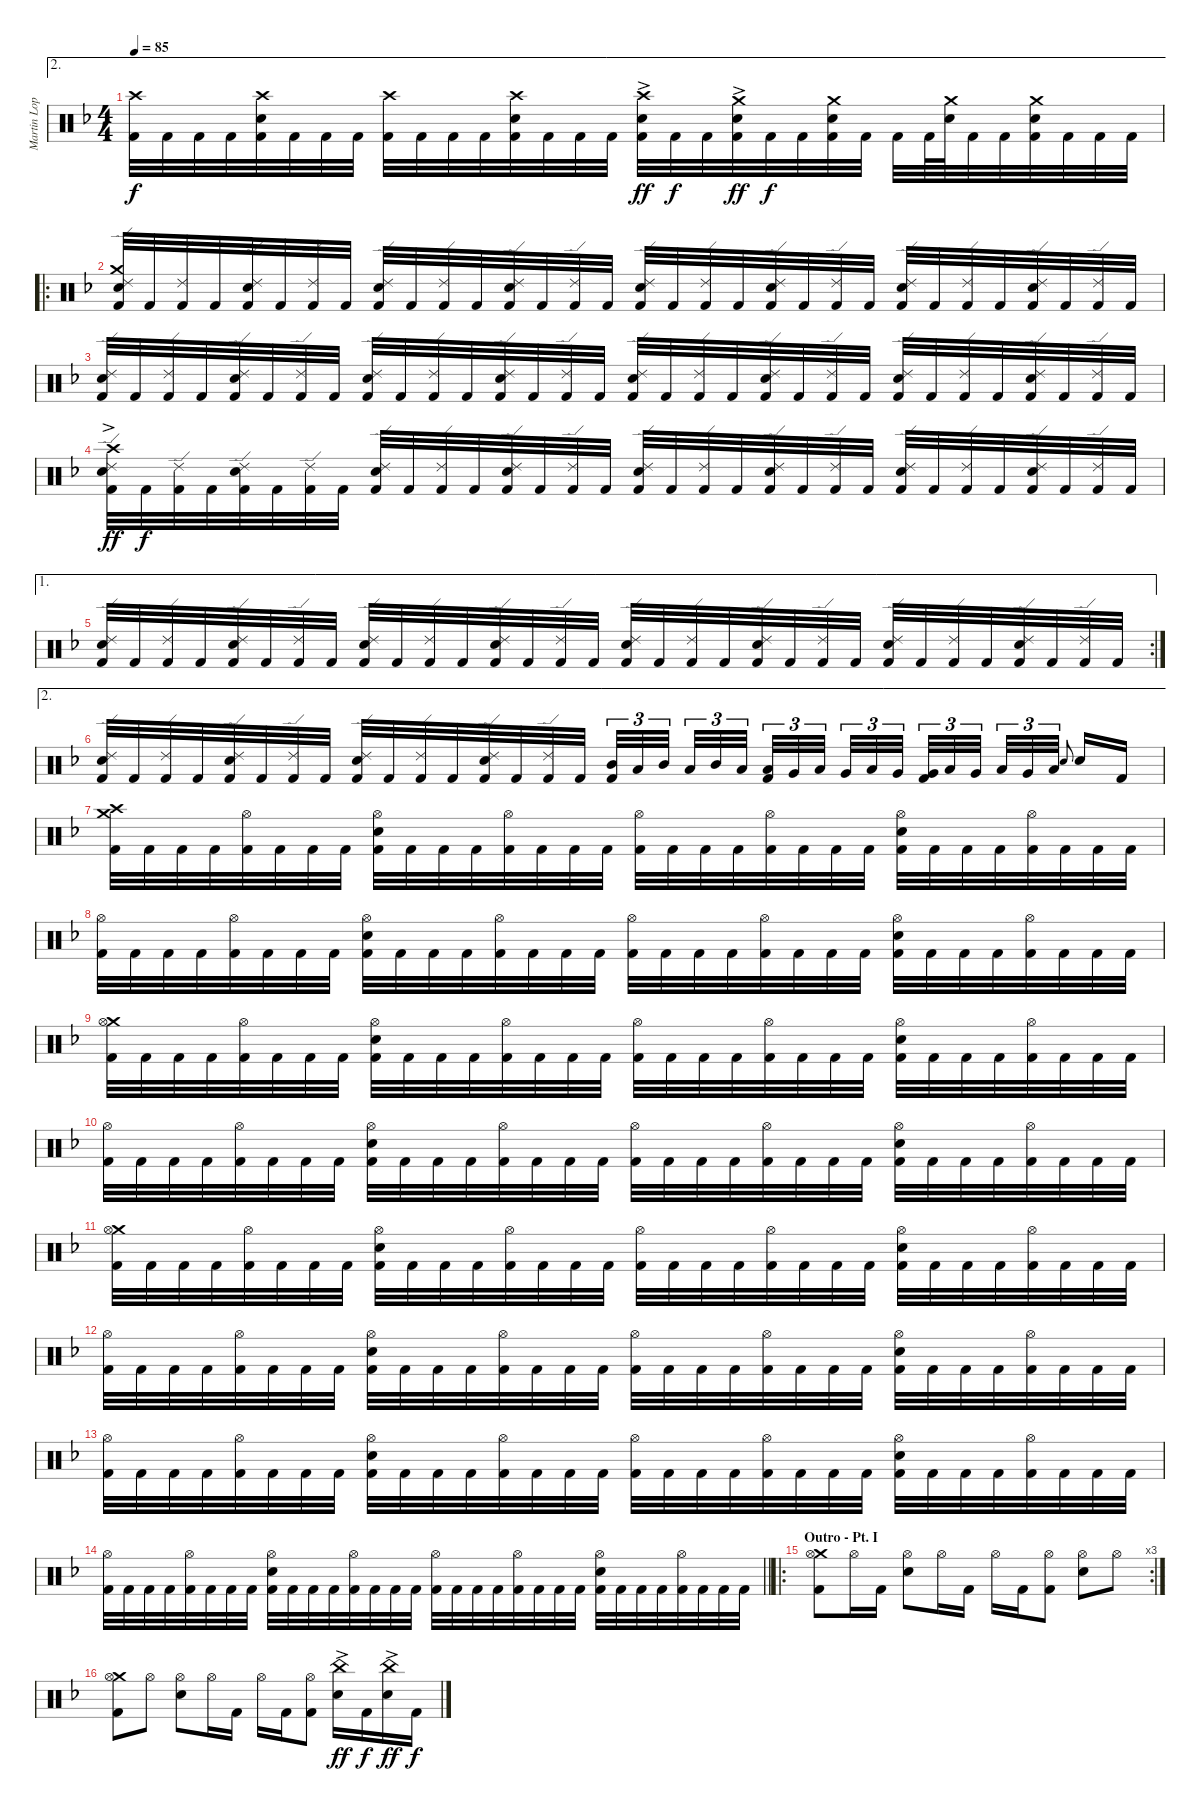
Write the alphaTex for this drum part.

\track ("Martin Lopez - Drums" "Martin Lop") {instrument percussion}
\staff {score}
\articulation defaults
\ae 2
\ts (4 4)
\tempo 85
\clef neutral
\ks f
("Crash high (hit)" "Kick (hit) 2").32{dy f} "Kick (hit) 2".32 "Kick (hit) 2".32 "Kick (hit) 2".32 ("Crash high (hit)" "Electric Snare (hit)" "Kick (hit) 2").32 "Kick (hit) 2".32 "Kick (hit) 2".32 "Kick (hit) 2".32 ("Crash high (hit)" "Kick (hit) 2").32 "Kick (hit) 2".32 "Kick (hit) 2".32 "Kick (hit) 2".32 ("Crash high (hit)" "Electric Snare (hit)" "Kick (hit) 2").32 "Kick (hit) 2".32 "Kick (hit) 2".32 "Kick (hit) 2".32 ("Crash high (hit)"{ac} "Electric Snare (hit)" "Kick (hit) 2").32{dy ff} "Kick (hit) 2".32{dy f} "Kick (hit) 2".32 ("Crash medium (hit)"{ac} "Electric Snare (hit)" "Kick (hit) 2").32{dy ff} "Kick (hit) 2".32{dy f} "Kick (hit) 2".32 ("Crash medium (hit)" "Electric Snare (hit)" "Kick (hit) 2").32 "Kick (hit) 2".32 "Kick (hit) 2".32 "Kick (hit) 2".64 ("Crash medium (hit)" "Electric Snare (hit)").64 "Kick (hit) 2".32 "Kick (hit) 2".32 ("Crash medium (hit)" "Electric Snare (hit)" "Kick (hit) 2").32 "Kick (hit) 2".32 "Kick (hit) 2".32 "Kick (hit) 2".32 |
\ro
("Ride (edge) 2" "Crash medium (hit)" "Electric Snare (hit)" "Kick (hit) 2").32 "Kick (hit) 2".32 ("Ride (edge) 2" "Kick (hit) 2").32 "Kick (hit) 2".32 ("Ride (edge) 2" "Electric Snare (hit)" "Kick (hit) 2").32 "Kick (hit) 2".32 ("Ride (edge) 2" "Kick (hit) 2").32 "Kick (hit) 2".32 ("Ride (edge) 2" "Electric Snare (hit)" "Kick (hit) 2").32 "Kick (hit) 2".32 ("Ride (edge) 2" "Kick (hit) 2").32 "Kick (hit) 2".32 ("Ride (edge) 2" "Electric Snare (hit)" "Kick (hit) 2").32 "Kick (hit) 2".32 ("Ride (edge) 2" "Kick (hit) 2").32 "Kick (hit) 2".32 ("Ride (edge) 2" "Electric Snare (hit)" "Kick (hit) 2").32 "Kick (hit) 2".32 ("Ride (edge) 2" "Kick (hit) 2").32 "Kick (hit) 2".32 ("Ride (edge) 2" "Electric Snare (hit)" "Kick (hit) 2").32 "Kick (hit) 2".32 ("Ride (edge) 2" "Kick (hit) 2").32 "Kick (hit) 2".32 ("Ride (edge) 2" "Electric Snare (hit)" "Kick (hit) 2").32 "Kick (hit) 2".32 ("Ride (edge) 2" "Kick (hit) 2").32 "Kick (hit) 2".32 ("Ride (edge) 2" "Electric Snare (hit)" "Kick (hit) 2").32 "Kick (hit) 2".32 ("Ride (edge) 2" "Kick (hit) 2").32 "Kick (hit) 2".32 |
("Ride (edge) 2" "Electric Snare (hit)" "Kick (hit) 2").32 "Kick (hit) 2".32 ("Ride (edge) 2" "Kick (hit) 2").32 "Kick (hit) 2".32 ("Ride (edge) 2" "Electric Snare (hit)" "Kick (hit) 2").32 "Kick (hit) 2".32 ("Ride (edge) 2" "Kick (hit) 2").32 "Kick (hit) 2".32 ("Ride (edge) 2" "Electric Snare (hit)" "Kick (hit) 2").32 "Kick (hit) 2".32 ("Ride (edge) 2" "Kick (hit) 2").32 "Kick (hit) 2".32 ("Ride (edge) 2" "Electric Snare (hit)" "Kick (hit) 2").32 "Kick (hit) 2".32 ("Ride (edge) 2" "Kick (hit) 2").32 "Kick (hit) 2".32 ("Ride (edge) 2" "Electric Snare (hit)" "Kick (hit) 2").32 "Kick (hit) 2".32 ("Ride (edge) 2" "Kick (hit) 2").32 "Kick (hit) 2".32 ("Ride (edge) 2" "Electric Snare (hit)" "Kick (hit) 2").32 "Kick (hit) 2".32 ("Ride (edge) 2" "Kick (hit) 2").32 "Kick (hit) 2".32 ("Ride (edge) 2" "Electric Snare (hit)" "Kick (hit) 2").32 "Kick (hit) 2".32 ("Ride (edge) 2" "Kick (hit) 2").32 "Kick (hit) 2".32 ("Ride (edge) 2" "Electric Snare (hit)" "Kick (hit) 2").32 "Kick (hit) 2".32 ("Ride (edge) 2" "Kick (hit) 2").32 "Kick (hit) 2".32 |
("Ride (edge) 2" "Crash high (hit)"{ac} "Electric Snare (hit)" "Kick (hit) 2").32{dy ff} "Kick (hit) 2".32{dy f} ("Ride (edge) 2" "Kick (hit) 2").32 "Kick (hit) 2".32 ("Ride (edge) 2" "Electric Snare (hit)" "Kick (hit) 2").32 "Kick (hit) 2".32 ("Ride (edge) 2" "Kick (hit) 2").32 "Kick (hit) 2".32 ("Ride (edge) 2" "Electric Snare (hit)" "Kick (hit) 2").32 "Kick (hit) 2".32 ("Ride (edge) 2" "Kick (hit) 2").32 "Kick (hit) 2".32 ("Ride (edge) 2" "Electric Snare (hit)" "Kick (hit) 2").32 "Kick (hit) 2".32 ("Ride (edge) 2" "Kick (hit) 2").32 "Kick (hit) 2".32 ("Ride (edge) 2" "Electric Snare (hit)" "Kick (hit) 2").32 "Kick (hit) 2".32 ("Ride (edge) 2" "Kick (hit) 2").32 "Kick (hit) 2".32 ("Ride (edge) 2" "Electric Snare (hit)" "Kick (hit) 2").32 "Kick (hit) 2".32 ("Ride (edge) 2" "Kick (hit) 2").32 "Kick (hit) 2".32 ("Ride (edge) 2" "Electric Snare (hit)" "Kick (hit) 2").32 "Kick (hit) 2".32 ("Ride (edge) 2" "Kick (hit) 2").32 "Kick (hit) 2".32 ("Ride (edge) 2" "Electric Snare (hit)" "Kick (hit) 2").32 "Kick (hit) 2".32 ("Ride (edge) 2" "Kick (hit) 2").32 "Kick (hit) 2".32 |
\ae 1
\rc 2
("Ride (edge) 2" "Electric Snare (hit)" "Kick (hit) 2").32 "Kick (hit) 2".32 ("Ride (edge) 2" "Kick (hit) 2").32 "Kick (hit) 2".32 ("Ride (edge) 2" "Electric Snare (hit)" "Kick (hit) 2").32 "Kick (hit) 2".32 ("Ride (edge) 2" "Kick (hit) 2").32 "Kick (hit) 2".32 ("Ride (edge) 2" "Electric Snare (hit)" "Kick (hit) 2").32 "Kick (hit) 2".32 ("Ride (edge) 2" "Kick (hit) 2").32 "Kick (hit) 2".32 ("Ride (edge) 2" "Electric Snare (hit)" "Kick (hit) 2").32 "Kick (hit) 2".32 ("Ride (edge) 2" "Kick (hit) 2").32 "Kick (hit) 2".32 ("Ride (edge) 2" "Electric Snare (hit)" "Kick (hit) 2").32 "Kick (hit) 2".32 ("Ride (edge) 2" "Kick (hit) 2").32 "Kick (hit) 2".32 ("Ride (edge) 2" "Electric Snare (hit)" "Kick (hit) 2").32 "Kick (hit) 2".32 ("Ride (edge) 2" "Kick (hit) 2").32 "Kick (hit) 2".32 ("Ride (edge) 2" "Electric Snare (hit)" "Kick (hit) 2").32 "Kick (hit) 2".32 ("Ride (edge) 2" "Kick (hit) 2").32 "Kick (hit) 2".32 ("Ride (edge) 2" "Electric Snare (hit)" "Kick (hit) 2").32 "Kick (hit) 2".32 ("Ride (edge) 2" "Kick (hit) 2").32 "Kick (hit) 2".32 |
\ae 2
("Ride (edge) 2" "Electric Snare (hit)" "Kick (hit) 2").32 "Kick (hit) 2".32 ("Ride (edge) 2" "Kick (hit) 2").32 "Kick (hit) 2".32 ("Ride (edge) 2" "Electric Snare (hit)" "Kick (hit) 2").32 "Kick (hit) 2".32 ("Ride (edge) 2" "Kick (hit) 2").32 "Kick (hit) 2".32 ("Ride (edge) 2" "Electric Snare (hit)" "Kick (hit) 2").32 "Kick (hit) 2".32 ("Ride (edge) 2" "Kick (hit) 2").32 "Kick (hit) 2".32 ("Ride (edge) 2" "Electric Snare (hit)" "Kick (hit) 2").32 "Kick (hit) 2".32 ("Ride (edge) 2" "Kick (hit) 2").32 "Kick (hit) 2".32 ("Mid Tom (hit)" "Kick (hit) 2").32{tu (3 2)} "Low Tom (hit)".32{tu (3 2)} "Mid Tom (hit)".32{tu (3 2) beam splitsecondary} "Low Tom (hit)".32{tu (3 2)} "Mid Tom (hit)".32{tu (3 2)} "Low Tom (hit)".32{tu (3 2) beam splitsecondary} ("Low Tom (hit)" "Kick (hit) 2").32{tu (3 2)} "Very Low Tom (hit)".32{tu (3 2)} "Low Tom (hit)".32{tu (3 2) beam splitsecondary} "Very Low Tom (hit)".32{tu (3 2)} "Low Tom (hit)".32{tu (3 2)} "Very Low Tom (hit)".32{tu (3 2)} ("Very Low Tom (hit)" "Kick (hit) 2").32{tu (3 2)} "Low Floor Tom (hit)".32{tu (3 2)} "Very Low Tom (hit)".32{tu (3 2) beam splitsecondary} "Low Floor Tom (hit)".32{tu (3 2)} "Very Low Tom (hit)".32{tu (3 2)} "Low Floor Tom (hit)".32{tu (3 2)} "Electric Snare (hit)".8{gr onbeat beam splitsecondary} "Electric Snare (hit)".16 "Kick (hit) 2".16 |
("Crash medium (hit)" "Crash high (hit)" "Kick (hit) 2").32 "Kick (hit) 2".32 "Kick (hit) 2".32 "Kick (hit) 2".32 ("Hi-Hat (open)" "Kick (hit) 2").32 "Kick (hit) 2".32 "Kick (hit) 2".32 "Kick (hit) 2".32 ("Hi-Hat (open)" "Electric Snare (hit)" "Kick (hit) 2").32 "Kick (hit) 2".32 "Kick (hit) 2".32 "Kick (hit) 2".32 ("Hi-Hat (open)" "Kick (hit) 2").32 "Kick (hit) 2".32 "Kick (hit) 2".32 "Kick (hit) 2".32 ("Hi-Hat (open)" "Kick (hit) 2").32 "Kick (hit) 2".32 "Kick (hit) 2".32 "Kick (hit) 2".32 ("Hi-Hat (open)" "Kick (hit) 2").32 "Kick (hit) 2".32 "Kick (hit) 2".32 "Kick (hit) 2".32 ("Hi-Hat (open)" "Electric Snare (hit)" "Kick (hit) 2").32 "Kick (hit) 2".32 "Kick (hit) 2".32 "Kick (hit) 2".32 ("Hi-Hat (open)" "Kick (hit) 2").32 "Kick (hit) 2".32 "Kick (hit) 2".32 "Kick (hit) 2".32 |
("Hi-Hat (open)" "Kick (hit) 2").32 "Kick (hit) 2".32 "Kick (hit) 2".32 "Kick (hit) 2".32 ("Hi-Hat (open)" "Kick (hit) 2").32 "Kick (hit) 2".32 "Kick (hit) 2".32 "Kick (hit) 2".32 ("Hi-Hat (open)" "Electric Snare (hit)" "Kick (hit) 2").32 "Kick (hit) 2".32 "Kick (hit) 2".32 "Kick (hit) 2".32 ("Hi-Hat (open)" "Kick (hit) 2").32 "Kick (hit) 2".32 "Kick (hit) 2".32 "Kick (hit) 2".32 ("Hi-Hat (open)" "Kick (hit) 2").32 "Kick (hit) 2".32 "Kick (hit) 2".32 "Kick (hit) 2".32 ("Hi-Hat (open)" "Kick (hit) 2").32 "Kick (hit) 2".32 "Kick (hit) 2".32 "Kick (hit) 2".32 ("Hi-Hat (open)" "Electric Snare (hit)" "Kick (hit) 2").32 "Kick (hit) 2".32 "Kick (hit) 2".32 "Kick (hit) 2".32 ("Hi-Hat (open)" "Kick (hit) 2").32 "Kick (hit) 2".32 "Kick (hit) 2".32 "Kick (hit) 2".32 |
("Crash medium (hit)" "Hi-Hat (open)" "Kick (hit) 2").32 "Kick (hit) 2".32 "Kick (hit) 2".32 "Kick (hit) 2".32 ("Hi-Hat (open)" "Kick (hit) 2").32 "Kick (hit) 2".32 "Kick (hit) 2".32 "Kick (hit) 2".32 ("Hi-Hat (open)" "Electric Snare (hit)" "Kick (hit) 2").32 "Kick (hit) 2".32 "Kick (hit) 2".32 "Kick (hit) 2".32 ("Hi-Hat (open)" "Kick (hit) 2").32 "Kick (hit) 2".32 "Kick (hit) 2".32 "Kick (hit) 2".32 ("Hi-Hat (open)" "Kick (hit) 2").32 "Kick (hit) 2".32 "Kick (hit) 2".32 "Kick (hit) 2".32 ("Hi-Hat (open)" "Kick (hit) 2").32 "Kick (hit) 2".32 "Kick (hit) 2".32 "Kick (hit) 2".32 ("Hi-Hat (open)" "Electric Snare (hit)" "Kick (hit) 2").32 "Kick (hit) 2".32 "Kick (hit) 2".32 "Kick (hit) 2".32 ("Hi-Hat (open)" "Kick (hit) 2").32 "Kick (hit) 2".32 "Kick (hit) 2".32 "Kick (hit) 2".32 |
("Hi-Hat (open)" "Kick (hit) 2").32 "Kick (hit) 2".32 "Kick (hit) 2".32 "Kick (hit) 2".32 ("Hi-Hat (open)" "Kick (hit) 2").32 "Kick (hit) 2".32 "Kick (hit) 2".32 "Kick (hit) 2".32 ("Hi-Hat (open)" "Electric Snare (hit)" "Kick (hit) 2").32 "Kick (hit) 2".32 "Kick (hit) 2".32 "Kick (hit) 2".32 ("Hi-Hat (open)" "Kick (hit) 2").32 "Kick (hit) 2".32 "Kick (hit) 2".32 "Kick (hit) 2".32 ("Hi-Hat (open)" "Kick (hit) 2").32 "Kick (hit) 2".32 "Kick (hit) 2".32 "Kick (hit) 2".32 ("Hi-Hat (open)" "Kick (hit) 2").32 "Kick (hit) 2".32 "Kick (hit) 2".32 "Kick (hit) 2".32 ("Hi-Hat (open)" "Electric Snare (hit)" "Kick (hit) 2").32 "Kick (hit) 2".32 "Kick (hit) 2".32 "Kick (hit) 2".32 ("Hi-Hat (open)" "Kick (hit) 2").32 "Kick (hit) 2".32 "Kick (hit) 2".32 "Kick (hit) 2".32 |
("Crash medium (hit)" "Hi-Hat (open)" "Kick (hit) 2").32 "Kick (hit) 2".32 "Kick (hit) 2".32 "Kick (hit) 2".32 ("Hi-Hat (open)" "Kick (hit) 2").32 "Kick (hit) 2".32 "Kick (hit) 2".32 "Kick (hit) 2".32 ("Hi-Hat (open)" "Electric Snare (hit)" "Kick (hit) 2").32 "Kick (hit) 2".32 "Kick (hit) 2".32 "Kick (hit) 2".32 ("Hi-Hat (open)" "Kick (hit) 2").32 "Kick (hit) 2".32 "Kick (hit) 2".32 "Kick (hit) 2".32 ("Hi-Hat (open)" "Kick (hit) 2").32 "Kick (hit) 2".32 "Kick (hit) 2".32 "Kick (hit) 2".32 ("Hi-Hat (open)" "Kick (hit) 2").32 "Kick (hit) 2".32 "Kick (hit) 2".32 "Kick (hit) 2".32 ("Hi-Hat (open)" "Electric Snare (hit)" "Kick (hit) 2").32 "Kick (hit) 2".32 "Kick (hit) 2".32 "Kick (hit) 2".32 ("Hi-Hat (open)" "Kick (hit) 2").32 "Kick (hit) 2".32 "Kick (hit) 2".32 "Kick (hit) 2".32 |
("Hi-Hat (open)" "Kick (hit) 2").32 "Kick (hit) 2".32 "Kick (hit) 2".32 "Kick (hit) 2".32 ("Hi-Hat (open)" "Kick (hit) 2").32 "Kick (hit) 2".32 "Kick (hit) 2".32 "Kick (hit) 2".32 ("Hi-Hat (open)" "Electric Snare (hit)" "Kick (hit) 2").32 "Kick (hit) 2".32 "Kick (hit) 2".32 "Kick (hit) 2".32 ("Hi-Hat (open)" "Kick (hit) 2").32 "Kick (hit) 2".32 "Kick (hit) 2".32 "Kick (hit) 2".32 ("Hi-Hat (open)" "Kick (hit) 2").32 "Kick (hit) 2".32 "Kick (hit) 2".32 "Kick (hit) 2".32 ("Hi-Hat (open)" "Kick (hit) 2").32 "Kick (hit) 2".32 "Kick (hit) 2".32 "Kick (hit) 2".32 ("Hi-Hat (open)" "Electric Snare (hit)" "Kick (hit) 2").32 "Kick (hit) 2".32 "Kick (hit) 2".32 "Kick (hit) 2".32 ("Hi-Hat (open)" "Kick (hit) 2").32 "Kick (hit) 2".32 "Kick (hit) 2".32 "Kick (hit) 2".32 |
("Hi-Hat (open)" "Kick (hit) 2").32 "Kick (hit) 2".32 "Kick (hit) 2".32 "Kick (hit) 2".32 ("Hi-Hat (open)" "Kick (hit) 2").32 "Kick (hit) 2".32 "Kick (hit) 2".32 "Kick (hit) 2".32 ("Hi-Hat (open)" "Electric Snare (hit)" "Kick (hit) 2").32 "Kick (hit) 2".32 "Kick (hit) 2".32 "Kick (hit) 2".32 ("Hi-Hat (open)" "Kick (hit) 2").32 "Kick (hit) 2".32 "Kick (hit) 2".32 "Kick (hit) 2".32 ("Hi-Hat (open)" "Kick (hit) 2").32 "Kick (hit) 2".32 "Kick (hit) 2".32 "Kick (hit) 2".32 ("Hi-Hat (open)" "Kick (hit) 2").32 "Kick (hit) 2".32 "Kick (hit) 2".32 "Kick (hit) 2".32 ("Hi-Hat (open)" "Electric Snare (hit)" "Kick (hit) 2").32 "Kick (hit) 2".32 "Kick (hit) 2".32 "Kick (hit) 2".32 ("Hi-Hat (open)" "Kick (hit) 2").32 "Kick (hit) 2".32 "Kick (hit) 2".32 "Kick (hit) 2".32 |
\barLineRight lightlight
("Hi-Hat (open)" "Kick (hit) 2").32 "Kick (hit) 2".32 "Kick (hit) 2".32 "Kick (hit) 2".32 ("Hi-Hat (open)" "Kick (hit) 2").32 "Kick (hit) 2".32 "Kick (hit) 2".32 "Kick (hit) 2".32 ("Hi-Hat (open)" "Electric Snare (hit)" "Kick (hit) 2").32 "Kick (hit) 2".32 "Kick (hit) 2".32 "Kick (hit) 2".32 ("Hi-Hat (open)" "Kick (hit) 2").32 "Kick (hit) 2".32 "Kick (hit) 2".32 "Kick (hit) 2".32 ("Hi-Hat (open)" "Kick (hit) 2").32 "Kick (hit) 2".32 "Kick (hit) 2".32 "Kick (hit) 2".32 ("Hi-Hat (open)" "Kick (hit) 2").32 "Kick (hit) 2".32 "Kick (hit) 2".32 "Kick (hit) 2".32 ("Hi-Hat (open)" "Electric Snare (hit)" "Kick (hit) 2").32 "Kick (hit) 2".32 "Kick (hit) 2".32 "Kick (hit) 2".32 ("Hi-Hat (open)" "Kick (hit) 2").32 "Kick (hit) 2".32 "Kick (hit) 2".32 "Kick (hit) 2".32 |
\ro
\rc 3
\section ("" "Outro - Pt. I")
("Crash medium (hit)" "Hi-Hat (open)" "Kick (hit) 2").8 "Hi-Hat (open)".16 "Kick (hit) 2".16 ("Hi-Hat (open)" "Electric Snare (hit)").8 "Hi-Hat (open)".16 "Kick (hit) 2".16 "Hi-Hat (open)".16 "Kick (hit) 2".16 ("Hi-Hat (open)" "Kick (hit) 2").8 ("Hi-Hat (open)" "Electric Snare (hit)").8 "Hi-Hat (open)".8 |
("Crash medium (hit)" "Hi-Hat (open)" "Kick (hit) 2").8 "Hi-Hat (open)".8 ("Hi-Hat (open)" "Electric Snare (hit)").8 "Hi-Hat (open)".16 "Kick (hit) 2".16 "Hi-Hat (open)".16 "Kick (hit) 2".16 ("Hi-Hat (open)" "Kick (hit) 2").8 ("China (hit)"{ac} "Electric Snare (hit)"{ac}).16{dy ff} "Kick (hit) 2".16{dy f} ("China (hit)"{ac} "Electric Snare (hit)"{ac}).16{dy ff} "Kick (hit) 2".16{dy f}
